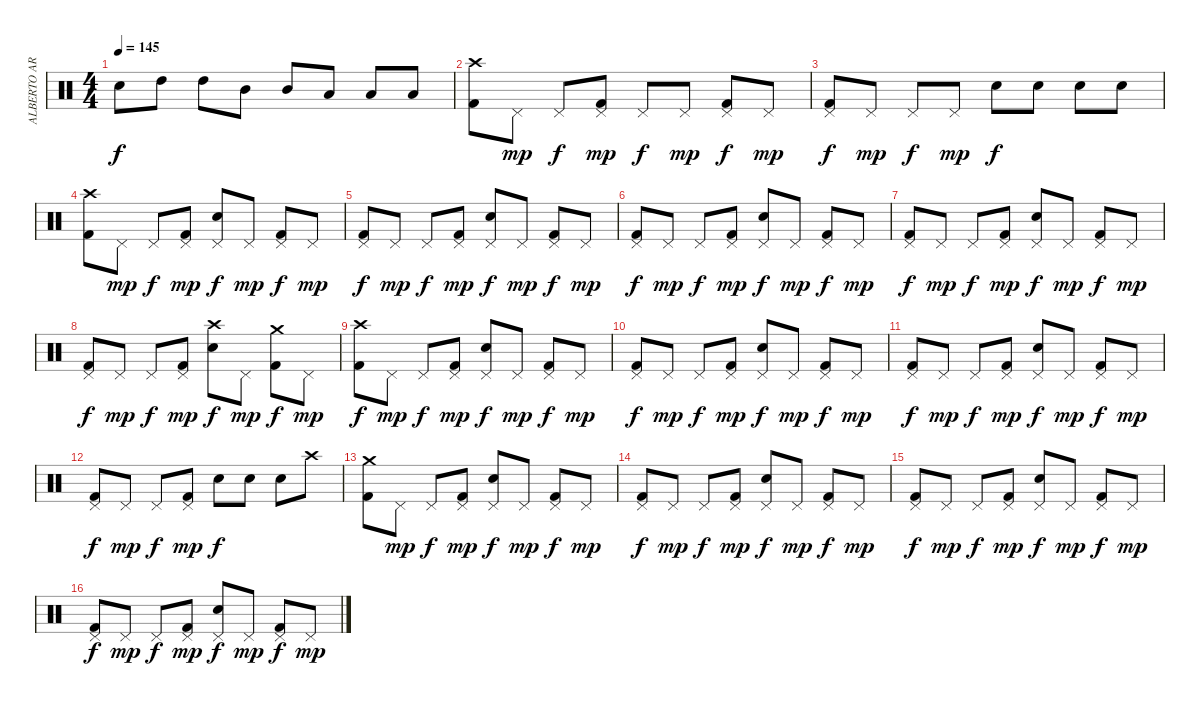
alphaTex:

\track ("ALBERTO ARDINES" "ALBERTO AR") {instrument percussion}
\staff {score}
\articulation defaults
\ts (4 4)
\tempo 145
\clef neutral
\ks c "Electric Snare (hit)".8{dy f} "High Tom (hit)".8 "High Tom (hit)".8 "Mid Tom (hit)".8 "Mid Tom (hit)".8 "Low Tom (hit)".8 "Low Tom (hit)".8 "Low Tom (hit)".8
|
("Crash high (hit)" "Kick (hit) 2").8 "Pedal Hi-Hat (hit)".8{dy mp} "Pedal Hi-Hat (hit)".8{dy f} ("Pedal Hi-Hat (hit)" "Kick (hit) 2").8{dy mp} "Pedal Hi-Hat (hit)".8{dy f} "Pedal Hi-Hat (hit)".8{dy mp} ("Pedal Hi-Hat (hit)" "Kick (hit) 2").8{dy f} "Pedal Hi-Hat (hit)".8{dy mp} |
("Pedal Hi-Hat (hit)" "Kick (hit) 2").8{dy f} "Pedal Hi-Hat (hit)".8{dy mp} "Pedal Hi-Hat (hit)".8{dy f} "Pedal Hi-Hat (hit)".8{dy mp} "Electric Snare (hit)".8{dy f} "Electric Snare (hit)".8 "Electric Snare (hit)".8 "Electric Snare (hit)".8 |
("Crash high (hit)" "Kick (hit) 2").8 "Pedal Hi-Hat (hit)".8{dy mp} "Pedal Hi-Hat (hit)".8{dy f} ("Pedal Hi-Hat (hit)" "Kick (hit) 2").8{dy mp} ("Pedal Hi-Hat (hit)" "Electric Snare (hit)").8{dy f} "Pedal Hi-Hat (hit)".8{dy mp} ("Pedal Hi-Hat (hit)" "Kick (hit) 2").8{dy f} "Pedal Hi-Hat (hit)".8{dy mp} |
("Pedal Hi-Hat (hit)" "Kick (hit) 2").8{dy f} "Pedal Hi-Hat (hit)".8{dy mp} "Pedal Hi-Hat (hit)".8{dy f} ("Pedal Hi-Hat (hit)" "Kick (hit) 2").8{dy mp} ("Pedal Hi-Hat (hit)" "Electric Snare (hit)").8{dy f} "Pedal Hi-Hat (hit)".8{dy mp} ("Pedal Hi-Hat (hit)" "Kick (hit) 2").8{dy f} "Pedal Hi-Hat (hit)".8{dy mp} |
("Pedal Hi-Hat (hit)" "Kick (hit) 2").8{dy f} "Pedal Hi-Hat (hit)".8{dy mp} "Pedal Hi-Hat (hit)".8{dy f} ("Pedal Hi-Hat (hit)" "Kick (hit) 2").8{dy mp} ("Pedal Hi-Hat (hit)" "Electric Snare (hit)").8{dy f} "Pedal Hi-Hat (hit)".8{dy mp} ("Pedal Hi-Hat (hit)" "Kick (hit) 2").8{dy f} "Pedal Hi-Hat (hit)".8{dy mp} |
("Pedal Hi-Hat (hit)" "Kick (hit) 2").8{dy f} "Pedal Hi-Hat (hit)".8{dy mp} "Pedal Hi-Hat (hit)".8{dy f} ("Pedal Hi-Hat (hit)" "Kick (hit) 2").8{dy mp} ("Pedal Hi-Hat (hit)" "Electric Snare (hit)").8{dy f} "Pedal Hi-Hat (hit)".8{dy mp} ("Pedal Hi-Hat (hit)" "Kick (hit) 2").8{dy f} "Pedal Hi-Hat (hit)".8{dy mp} |
("Pedal Hi-Hat (hit)" "Kick (hit) 2").8{dy f} "Pedal Hi-Hat (hit)".8{dy mp} "Pedal Hi-Hat (hit)".8{dy f} ("Pedal Hi-Hat (hit)" "Kick (hit) 2").8{dy mp} ("Crash high (hit)" "Electric Snare (hit)").8{dy f} "Pedal Hi-Hat (hit)".8{dy mp} ("Crash medium (hit)" "Kick (hit) 2").8{dy f} "Pedal Hi-Hat (hit)".8{dy mp} |
("Crash high (hit)" "Kick (hit) 2").8{dy f} "Pedal Hi-Hat (hit)".8{dy mp} "Pedal Hi-Hat (hit)".8{dy f} ("Pedal Hi-Hat (hit)" "Kick (hit) 2").8{dy mp} ("Pedal Hi-Hat (hit)" "Electric Snare (hit)").8{dy f} "Pedal Hi-Hat (hit)".8{dy mp} ("Pedal Hi-Hat (hit)" "Kick (hit) 2").8{dy f} "Pedal Hi-Hat (hit)".8{dy mp} |
("Pedal Hi-Hat (hit)" "Kick (hit) 2").8{dy f} "Pedal Hi-Hat (hit)".8{dy mp} "Pedal Hi-Hat (hit)".8{dy f} ("Pedal Hi-Hat (hit)" "Kick (hit) 2").8{dy mp} ("Pedal Hi-Hat (hit)" "Electric Snare (hit)").8{dy f} "Pedal Hi-Hat (hit)".8{dy mp} ("Pedal Hi-Hat (hit)" "Kick (hit) 2").8{dy f} "Pedal Hi-Hat (hit)".8{dy mp} |
("Pedal Hi-Hat (hit)" "Kick (hit) 2").8{dy f} "Pedal Hi-Hat (hit)".8{dy mp} "Pedal Hi-Hat (hit)".8{dy f} ("Pedal Hi-Hat (hit)" "Kick (hit) 2").8{dy mp} ("Pedal Hi-Hat (hit)" "Electric Snare (hit)").8{dy f} "Pedal Hi-Hat (hit)".8{dy mp} ("Pedal Hi-Hat (hit)" "Kick (hit) 2").8{dy f} "Pedal Hi-Hat (hit)".8{dy mp} |
("Pedal Hi-Hat (hit)" "Kick (hit) 2").8{dy f} "Pedal Hi-Hat (hit)".8{dy mp} "Pedal Hi-Hat (hit)".8{dy f} ("Pedal Hi-Hat (hit)" "Kick (hit) 2").8{dy mp} "Electric Snare (hit)".8{dy f} "Electric Snare (hit)".8 "Electric Snare (hit)".8 "Crash high (hit)".8 |
("Crash medium (hit)" "Kick (hit) 2").8 "Pedal Hi-Hat (hit)".8{dy mp} "Pedal Hi-Hat (hit)".8{dy f} ("Pedal Hi-Hat (hit)" "Kick (hit) 2").8{dy mp} ("Pedal Hi-Hat (hit)" "Electric Snare (hit)").8{dy f} "Pedal Hi-Hat (hit)".8{dy mp} ("Pedal Hi-Hat (hit)" "Kick (hit) 2").8{dy f} "Pedal Hi-Hat (hit)".8{dy mp} |
("Pedal Hi-Hat (hit)" "Kick (hit) 2").8{dy f} "Pedal Hi-Hat (hit)".8{dy mp} "Pedal Hi-Hat (hit)".8{dy f} ("Pedal Hi-Hat (hit)" "Kick (hit) 2").8{dy mp} ("Pedal Hi-Hat (hit)" "Electric Snare (hit)").8{dy f} "Pedal Hi-Hat (hit)".8{dy mp} ("Pedal Hi-Hat (hit)" "Kick (hit) 2").8{dy f} "Pedal Hi-Hat (hit)".8{dy mp} |
("Pedal Hi-Hat (hit)" "Kick (hit) 2").8{dy f} "Pedal Hi-Hat (hit)".8{dy mp} "Pedal Hi-Hat (hit)".8{dy f} ("Pedal Hi-Hat (hit)" "Kick (hit) 2").8{dy mp} ("Pedal Hi-Hat (hit)" "Electric Snare (hit)").8{dy f} "Pedal Hi-Hat (hit)".8{dy mp} ("Pedal Hi-Hat (hit)" "Kick (hit) 2").8{dy f} "Pedal Hi-Hat (hit)".8{dy mp} |
("Pedal Hi-Hat (hit)" "Kick (hit) 2").8{dy f} "Pedal Hi-Hat (hit)".8{dy mp} "Pedal Hi-Hat (hit)".8{dy f} ("Pedal Hi-Hat (hit)" "Kick (hit) 2").8{dy mp} ("Pedal Hi-Hat (hit)" "Electric Snare (hit)").8{dy f} "Pedal Hi-Hat (hit)".8{dy mp} ("Pedal Hi-Hat (hit)" "Kick (hit) 2").8{dy f} "Pedal Hi-Hat (hit)".8{dy mp}
